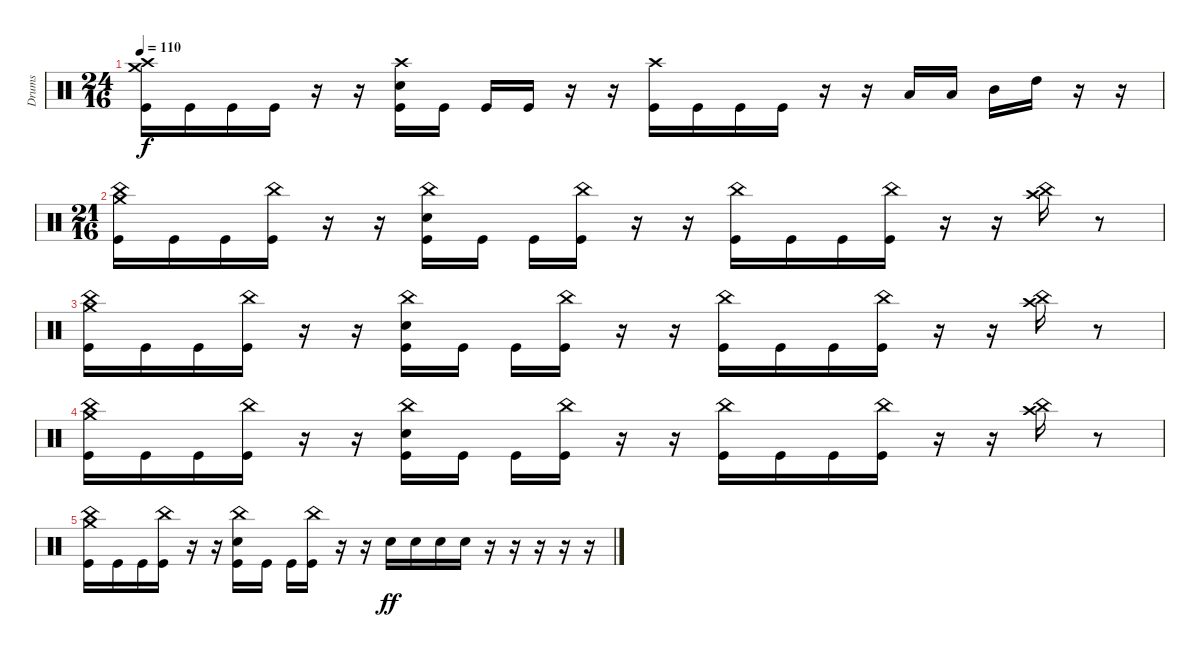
\track ("Drums" "Drums") {instrument percussion}
\staff {score}
\articulation defaults
\ts (24 16)
\tempo 110
\clef neutral
\ks c
("Crash high (hit)" "Crash medium (hit)" "Kick (hit)").16{dy f} "Kick (hit)".16 "Kick (hit)".16 "Kick (hit)".16 r.16 r.16 ("Crash high (hit)" "Electric Snare (hit)" "Kick (hit)").16 "Kick (hit)".16 "Kick (hit)".16 "Kick (hit)".16 r.16 r.16 ("Crash high (hit)" "Kick (hit)").16 "Kick (hit)".16 "Kick (hit)".16 "Kick (hit)".16 r.16 r.16 "Low Tom (hit)".16 "Low Tom (hit)".16 "Mid Tom (hit)".16 "High Tom (hit)".16 r.16 r.16 |
\ts (21 16)
("China (hit)" "Crash medium (hit)" "Kick (hit)").16 "Kick (hit)".16 "Kick (hit)".16 ("China (hit)" "Kick (hit)").16 r.16 r.16 ("China (hit)" "Electric Snare (hit)" "Kick (hit)").16 "Kick (hit)".16 "Kick (hit)".16 ("China (hit)" "Kick (hit)").16 r.16 r.16 ("China (hit)" "Kick (hit)").16 "Kick (hit)".16 "Kick (hit)".16 ("China (hit)" "Kick (hit)").16 r.16 r.16 ("Crash high (hit)" "China (hit)").16 r.8 |
("China (hit)" "Crash medium (hit)" "Kick (hit)").16 "Kick (hit)".16 "Kick (hit)".16 ("China (hit)" "Kick (hit)").16 r.16 r.16 ("China (hit)" "Electric Snare (hit)" "Kick (hit)").16 "Kick (hit)".16 "Kick (hit)".16 ("China (hit)" "Kick (hit)").16 r.16 r.16 ("China (hit)" "Kick (hit)").16 "Kick (hit)".16 "Kick (hit)".16 ("China (hit)" "Kick (hit)").16 r.16 r.16 ("Crash high (hit)" "China (hit)").16 r.8 |
("China (hit)" "Crash medium (hit)" "Kick (hit)").16 "Kick (hit)".16 "Kick (hit)".16 ("China (hit)" "Kick (hit)").16 r.16 r.16 ("China (hit)" "Electric Snare (hit)" "Kick (hit)").16 "Kick (hit)".16 "Kick (hit)".16 ("China (hit)" "Kick (hit)").16 r.16 r.16 ("China (hit)" "Kick (hit)").16 "Kick (hit)".16 "Kick (hit)".16 ("China (hit)" "Kick (hit)").16 r.16 r.16 ("Crash high (hit)" "China (hit)").16 r.8 |
("China (hit)" "Crash medium (hit)" "Kick (hit)").16 "Kick (hit)".16 "Kick (hit)".16 ("China (hit)" "Kick (hit)").16 r.16 r.16 ("China (hit)" "Electric Snare (hit)" "Kick (hit)").16 "Kick (hit)".16 "Kick (hit)".16 ("China (hit)" "Kick (hit)").16 r.16 r.16 "Electric Snare (hit)".16{dy ff} "Electric Snare (hit)".16 "Electric Snare (hit)".16 "Electric Snare (hit)".16 r.16 r.16 r.16 r.16 r.16
